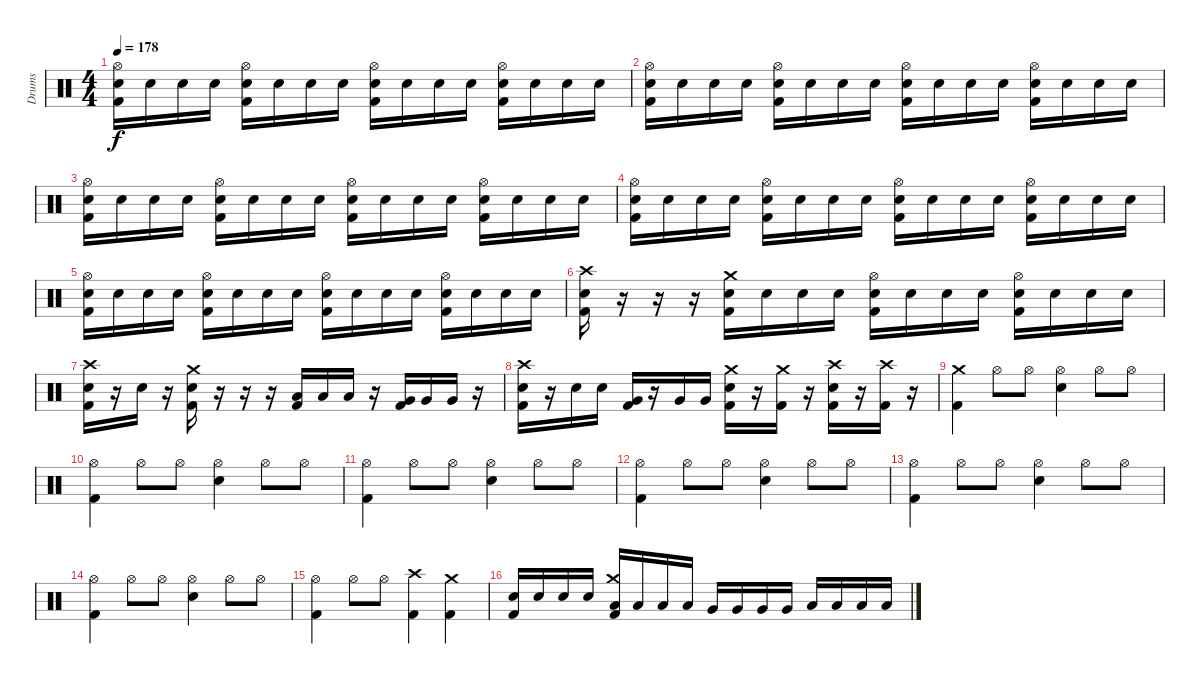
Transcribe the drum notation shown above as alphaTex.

\track ("Drums" "Drums") {instrument percussion}
\staff {score}
\articulation defaults
\ts (4 4)
\tempo 178
\clef neutral
\ks c
("Hi-Hat (open)" "Electric Snare (hit)" "Kick (hit) 2").16{dy f} "Electric Snare (hit)".16 "Electric Snare (hit)".16 "Electric Snare (hit)".16 ("Hi-Hat (open)" "Electric Snare (hit)" "Kick (hit) 2").16 "Electric Snare (hit)".16 "Electric Snare (hit)".16 "Electric Snare (hit)".16 ("Hi-Hat (open)" "Electric Snare (hit)" "Kick (hit) 2").16 "Electric Snare (hit)".16 "Electric Snare (hit)".16 "Electric Snare (hit)".16 ("Hi-Hat (open)" "Electric Snare (hit)" "Kick (hit) 2").16 "Electric Snare (hit)".16 "Electric Snare (hit)".16 "Electric Snare (hit)".16 |
("Hi-Hat (open)" "Electric Snare (hit)" "Kick (hit) 2").16 "Electric Snare (hit)".16 "Electric Snare (hit)".16 "Electric Snare (hit)".16 ("Hi-Hat (open)" "Electric Snare (hit)" "Kick (hit) 2").16 "Electric Snare (hit)".16 "Electric Snare (hit)".16 "Electric Snare (hit)".16 ("Hi-Hat (open)" "Electric Snare (hit)" "Kick (hit) 2").16 "Electric Snare (hit)".16 "Electric Snare (hit)".16 "Electric Snare (hit)".16 ("Hi-Hat (open)" "Electric Snare (hit)" "Kick (hit) 2").16 "Electric Snare (hit)".16 "Electric Snare (hit)".16 "Electric Snare (hit)".16 |
("Hi-Hat (open)" "Electric Snare (hit)" "Kick (hit) 2").16 "Electric Snare (hit)".16 "Electric Snare (hit)".16 "Electric Snare (hit)".16 ("Hi-Hat (open)" "Electric Snare (hit)" "Kick (hit) 2").16 "Electric Snare (hit)".16 "Electric Snare (hit)".16 "Electric Snare (hit)".16 ("Hi-Hat (open)" "Electric Snare (hit)" "Kick (hit) 2").16 "Electric Snare (hit)".16 "Electric Snare (hit)".16 "Electric Snare (hit)".16 ("Hi-Hat (open)" "Electric Snare (hit)" "Kick (hit) 2").16 "Electric Snare (hit)".16 "Electric Snare (hit)".16 "Electric Snare (hit)".16 |
("Hi-Hat (open)" "Electric Snare (hit)" "Kick (hit) 2").16 "Electric Snare (hit)".16 "Electric Snare (hit)".16 "Electric Snare (hit)".16 ("Hi-Hat (open)" "Electric Snare (hit)" "Kick (hit) 2").16 "Electric Snare (hit)".16 "Electric Snare (hit)".16 "Electric Snare (hit)".16 ("Hi-Hat (open)" "Electric Snare (hit)" "Kick (hit) 2").16 "Electric Snare (hit)".16 "Electric Snare (hit)".16 "Electric Snare (hit)".16 ("Hi-Hat (open)" "Electric Snare (hit)" "Kick (hit) 2").16 "Electric Snare (hit)".16 "Electric Snare (hit)".16 "Electric Snare (hit)".16 |
("Hi-Hat (open)" "Electric Snare (hit)" "Kick (hit) 2").16 "Electric Snare (hit)".16 "Electric Snare (hit)".16 "Electric Snare (hit)".16 ("Hi-Hat (open)" "Electric Snare (hit)" "Kick (hit) 2").16 "Electric Snare (hit)".16 "Electric Snare (hit)".16 "Electric Snare (hit)".16 ("Hi-Hat (open)" "Electric Snare (hit)" "Kick (hit) 2").16 "Electric Snare (hit)".16 "Electric Snare (hit)".16 "Electric Snare (hit)".16 ("Hi-Hat (open)" "Electric Snare (hit)" "Kick (hit) 2").16 "Electric Snare (hit)".16 "Electric Snare (hit)".16 "Electric Snare (hit)".16 |
("Crash high (hit)" "Electric Snare (hit)" "Kick (hit) 2").16 r.16 r.16 r.16 ("Crash medium (hit)" "Electric Snare (hit)" "Kick (hit) 2").16 "Electric Snare (hit)".16 "Electric Snare (hit)".16 "Electric Snare (hit)".16 ("Hi-Hat (open)" "Electric Snare (hit)" "Kick (hit) 2").16 "Electric Snare (hit)".16 "Electric Snare (hit)".16 "Electric Snare (hit)".16 ("Hi-Hat (open)" "Electric Snare (hit)" "Kick (hit) 2").16 "Electric Snare (hit)".16 "Electric Snare (hit)".16 "Electric Snare (hit)".16 |
("Crash high (hit)" "Electric Snare (hit)" "Kick (hit) 2").16 r.16 "Electric Snare (hit)".16 r.16 ("Crash medium (hit)" "Electric Snare (hit)" "Kick (hit) 2").16 r.16 r.16 r.16 ("Low Tom (hit)" "Kick (hit) 2").16 "Low Tom (hit)".16 "Low Tom (hit)".16 r.16 ("Very Low Tom (hit)" "Kick (hit) 2").16 "Very Low Tom (hit)".16 "Very Low Tom (hit)".16 r.16 |
("Crash high (hit)" "Electric Snare (hit)" "Kick (hit) 2").16 r.16 "Electric Snare (hit)".16 "Electric Snare (hit)".16 ("Very Low Tom (hit)" "Kick (hit) 2").16 r.16 "Very Low Tom (hit)".16 "Very Low Tom (hit)".16 ("Crash medium (hit)" "Electric Snare (hit)" "Kick (hit) 2").16 r.16 ("Crash medium (hit)" "Kick (hit) 2").16 r.16 ("Crash high (hit)" "Electric Snare (hit)" "Kick (hit) 2").16 r.16 ("Crash high (hit)" "Kick (hit) 2").16 r.16 |
("Crash medium (hit)" "Kick (hit) 2").4 "Hi-Hat (open)".8 "Hi-Hat (open)".8 ("Hi-Hat (open)" "Electric Snare (hit)").4 "Hi-Hat (open)".8 "Hi-Hat (open)".8 |
("Hi-Hat (open)" "Kick (hit) 2").4 "Hi-Hat (open)".8 "Hi-Hat (open)".8 ("Hi-Hat (open)" "Electric Snare (hit)").4 "Hi-Hat (open)".8 "Hi-Hat (open)".8 |
("Hi-Hat (open)" "Kick (hit) 2").4 "Hi-Hat (open)".8 "Hi-Hat (open)".8 ("Hi-Hat (open)" "Electric Snare (hit)").4 "Hi-Hat (open)".8 "Hi-Hat (open)".8 |
("Hi-Hat (open)" "Kick (hit) 2").4 "Hi-Hat (open)".8 "Hi-Hat (open)".8 ("Hi-Hat (open)" "Electric Snare (hit)").4 "Hi-Hat (open)".8 "Hi-Hat (open)".8 |
("Hi-Hat (open)" "Kick (hit) 2").4 "Hi-Hat (open)".8 "Hi-Hat (open)".8 ("Hi-Hat (open)" "Electric Snare (hit)").4 "Hi-Hat (open)".8 "Hi-Hat (open)".8 |
("Hi-Hat (open)" "Kick (hit) 2").4 "Hi-Hat (open)".8 "Hi-Hat (open)".8 ("Hi-Hat (open)" "Electric Snare (hit)").4 "Hi-Hat (open)".8 "Hi-Hat (open)".8 |
("Hi-Hat (open)" "Kick (hit) 2").4 "Hi-Hat (open)".8 "Hi-Hat (open)".8 ("Crash high (hit)" "Kick (hit) 2").4 ("Crash medium (hit)" "Kick (hit) 2").4 |
("Electric Snare (hit)" "Kick (hit) 2").16 "Electric Snare (hit)".16 "Electric Snare (hit)".16 "Electric Snare (hit)".16 ("Crash medium (hit)" "Low Tom (hit)" "Kick (hit) 2").16 "Low Tom (hit)".16 "Low Tom (hit)".16 "Low Tom (hit)".16 "Very Low Tom (hit)".16 "Very Low Tom (hit)".16 "Very Low Tom (hit)".16 "Very Low Tom (hit)".16 "Low Floor Tom (hit)".16 "Low Floor Tom (hit)".16 "Low Floor Tom (hit)".16 "Low Floor Tom (hit)".16
